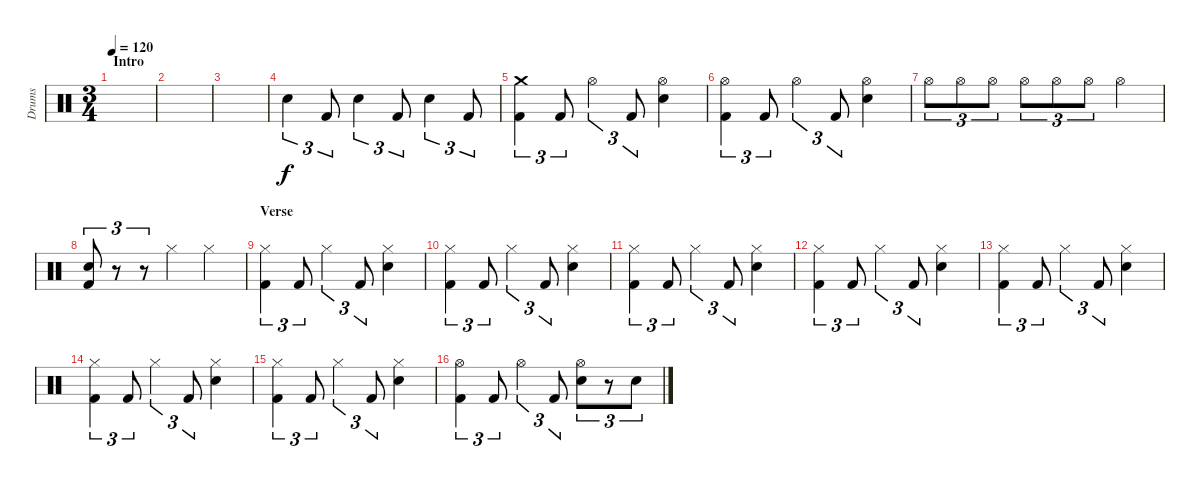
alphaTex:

\track ("Drums" "Drums") {instrument percussion}
\staff {score}
\articulation defaults
\ts (3 4)
\section ("" "Intro")
\tempo 120
\clef neutral
\ks c
|
|
|
"Snare (hit) 2".4{tu (3 2)} "Kick (hit) 2".8{tu (3 2)} "Snare (hit) 2".4{tu (3 2)} "Kick (hit) 2".8{tu (3 2)} "Snare (hit) 2".4{tu (3 2)} "Kick (hit) 2".8{tu (3 2)} |
("Crash medium (hit)" "Kick (hit) 2").4{tu (3 2)} "Kick (hit) 2".8{tu (3 2)} "Hi-Hat (open)".4{tu (3 2)} "Kick (hit) 2".8{tu (3 2)} ("Hi-Hat (open)" "Snare (hit) 2").4 |
("Hi-Hat (open)" "Kick (hit) 2").4{tu (3 2)} "Kick (hit) 2".8{tu (3 2)} "Hi-Hat (open)".4{tu (3 2)} "Kick (hit) 2".8{tu (3 2)} ("Hi-Hat (open)" "Snare (hit) 2").4 |
"Hi-Hat (open)".8{tu (3 2)} "Hi-Hat (open)".8{tu (3 2)} "Hi-Hat (open)".8{tu (3 2)} "Hi-Hat (open)".8{tu (3 2)} "Hi-Hat (open)".8{tu (3 2)} "Hi-Hat (open)".8{tu (3 2)} "Hi-Hat (open)".4 |
("Snare (hit) 2" "Kick (hit) 2").8{tu (3 2)} r.8{tu (3 2)} r.8{tu (3 2)} "Hi-Hat (closed)".4 "Hi-Hat (closed)".4 |
\section ("" "Verse")
("Hi-Hat (closed)" "Kick (hit) 2").4{tu (3 2)} "Kick (hit) 2".8{tu (3 2)} "Hi-Hat (closed)".4{tu (3 2)} "Kick (hit) 2".8{tu (3 2)} ("Hi-Hat (closed)" "Snare (hit) 2").4 |
("Hi-Hat (closed)" "Kick (hit) 2").4{tu (3 2)} "Kick (hit) 2".8{tu (3 2)} "Hi-Hat (closed)".4{tu (3 2)} "Kick (hit) 2".8{tu (3 2)} ("Hi-Hat (closed)" "Snare (hit) 2").4 |
("Hi-Hat (closed)" "Kick (hit) 2").4{tu (3 2)} "Kick (hit) 2".8{tu (3 2)} "Hi-Hat (closed)".4{tu (3 2)} "Kick (hit) 2".8{tu (3 2)} ("Hi-Hat (closed)" "Snare (hit) 2").4 |
("Hi-Hat (closed)" "Kick (hit) 2").4{tu (3 2)} "Kick (hit) 2".8{tu (3 2)} "Hi-Hat (closed)".4{tu (3 2)} "Kick (hit) 2".8{tu (3 2)} ("Hi-Hat (closed)" "Snare (hit) 2").4 |
("Hi-Hat (closed)" "Kick (hit) 2").4{tu (3 2)} "Kick (hit) 2".8{tu (3 2)} "Hi-Hat (closed)".4{tu (3 2)} "Kick (hit) 2".8{tu (3 2)} ("Hi-Hat (closed)" "Snare (hit) 2").4 |
("Hi-Hat (closed)" "Kick (hit) 2").4{tu (3 2)} "Kick (hit) 2".8{tu (3 2)} "Hi-Hat (closed)".4{tu (3 2)} "Kick (hit) 2".8{tu (3 2)} ("Hi-Hat (closed)" "Snare (hit) 2").4 |
("Hi-Hat (closed)" "Kick (hit) 2").4{tu (3 2)} "Kick (hit) 2".8{tu (3 2)} "Hi-Hat (closed)".4{tu (3 2)} "Kick (hit) 2".8{tu (3 2)} ("Hi-Hat (closed)" "Snare (hit) 2").4 |
("Hi-Hat (open)" "Kick (hit) 2").4{tu (3 2)} "Kick (hit) 2".8{tu (3 2)} "Hi-Hat (open)".4{tu (3 2)} "Kick (hit) 2".8{tu (3 2)} ("Hi-Hat (open)" "Snare (hit) 2").8{tu (3 2)} r.8{tu (3 2)} "Snare (hit) 2".8{tu (3 2)}
